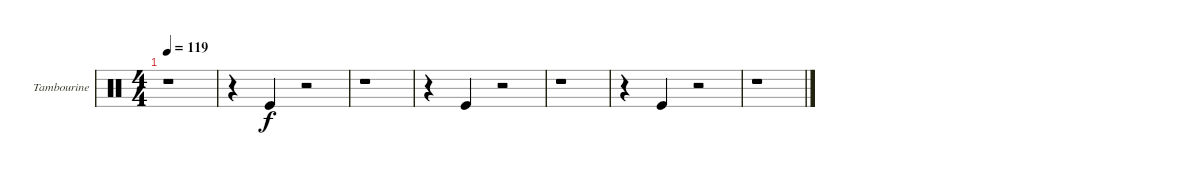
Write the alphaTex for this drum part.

\defaultSystemsLayout 4
\bracketExtendMode groupsimilarinstruments
\useSystemSignSeparator
\multiBarRest
\multiTrackTrackNamePolicy allsystems
\firstSystemTrackNameMode fullname
\firstSystemTrackNameOrientation horizontal
\otherSystemsTrackNameOrientation horizontal
\defaultBarNumberDisplay FirstOfSystem
\track ("Tambourine" "Tamb.") {multiBarRest instrument percussion}
\staff {score}
\articulation defaults
\ts (4 4)
\tempo 119
\clef neutral
\ks aminor
r.1{dy f} |
r.4 "Kick (hit)".4 r.2 |
r.1 |
r.4 "Kick (hit)".4 r.2 |
r.1 |
r.4 "Kick (hit)".4 r.2 |
r.1
